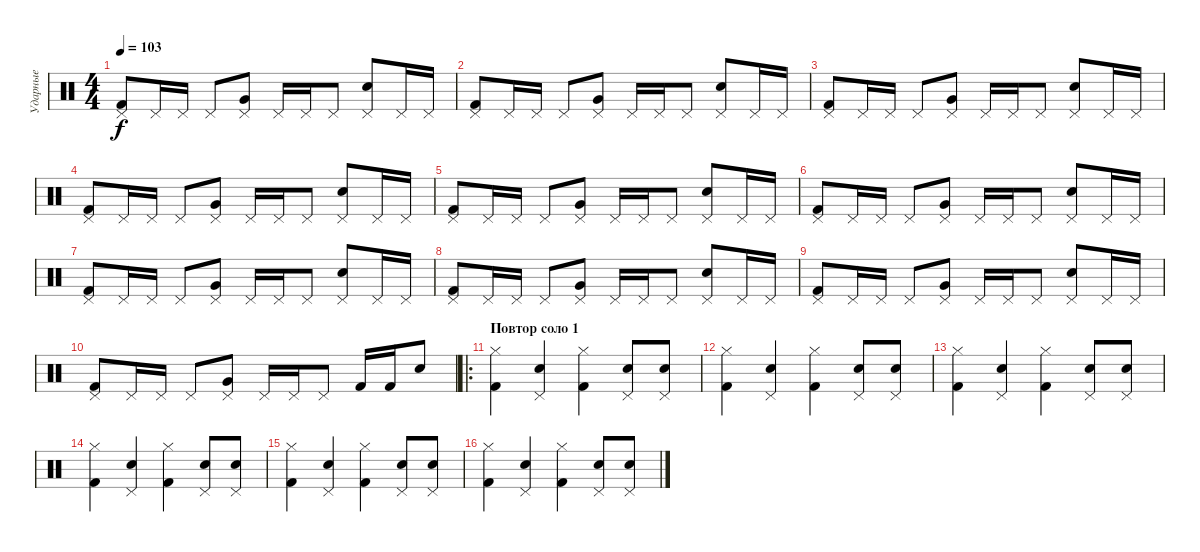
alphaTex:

\track ("Ударные" "Ударные") {instrument percussion}
\staff {score}
\articulation defaults
\ts (4 4)
\tempo 103
\clef neutral
\ks c
("Pedal Hi-Hat (hit)" "Kick (hit) 2").8{dy f} "Pedal Hi-Hat (hit)".16 "Pedal Hi-Hat (hit)".16 "Pedal Hi-Hat (hit)".8 ("Pedal Hi-Hat (hit)" "Very Low Tom (hit)").8 "Pedal Hi-Hat (hit)".16 "Pedal Hi-Hat (hit)".16 "Pedal Hi-Hat (hit)".8 ("Pedal Hi-Hat (hit)" "Snare (hit) 2").8 "Pedal Hi-Hat (hit)".16 "Pedal Hi-Hat (hit)".16 |
("Pedal Hi-Hat (hit)" "Kick (hit) 2").8 "Pedal Hi-Hat (hit)".16 "Pedal Hi-Hat (hit)".16 "Pedal Hi-Hat (hit)".8 ("Pedal Hi-Hat (hit)" "Very Low Tom (hit)").8 "Pedal Hi-Hat (hit)".16 "Pedal Hi-Hat (hit)".16 "Pedal Hi-Hat (hit)".8 ("Pedal Hi-Hat (hit)" "Snare (hit) 2").8 "Pedal Hi-Hat (hit)".16 "Pedal Hi-Hat (hit)".16 |
("Pedal Hi-Hat (hit)" "Kick (hit) 2").8 "Pedal Hi-Hat (hit)".16 "Pedal Hi-Hat (hit)".16 "Pedal Hi-Hat (hit)".8 ("Pedal Hi-Hat (hit)" "Very Low Tom (hit)").8 "Pedal Hi-Hat (hit)".16 "Pedal Hi-Hat (hit)".16 "Pedal Hi-Hat (hit)".8 ("Pedal Hi-Hat (hit)" "Snare (hit) 2").8 "Pedal Hi-Hat (hit)".16 "Pedal Hi-Hat (hit)".16 |
("Pedal Hi-Hat (hit)" "Kick (hit) 2").8 "Pedal Hi-Hat (hit)".16 "Pedal Hi-Hat (hit)".16 "Pedal Hi-Hat (hit)".8 ("Pedal Hi-Hat (hit)" "Very Low Tom (hit)").8 "Pedal Hi-Hat (hit)".16 "Pedal Hi-Hat (hit)".16 "Pedal Hi-Hat (hit)".8 ("Pedal Hi-Hat (hit)" "Snare (hit) 2").8 "Pedal Hi-Hat (hit)".16 "Pedal Hi-Hat (hit)".16 |
("Pedal Hi-Hat (hit)" "Kick (hit) 2").8 "Pedal Hi-Hat (hit)".16 "Pedal Hi-Hat (hit)".16 "Pedal Hi-Hat (hit)".8 ("Pedal Hi-Hat (hit)" "Very Low Tom (hit)").8 "Pedal Hi-Hat (hit)".16 "Pedal Hi-Hat (hit)".16 "Pedal Hi-Hat (hit)".8 ("Pedal Hi-Hat (hit)" "Snare (hit) 2").8 "Pedal Hi-Hat (hit)".16 "Pedal Hi-Hat (hit)".16 |
("Pedal Hi-Hat (hit)" "Kick (hit) 2").8 "Pedal Hi-Hat (hit)".16 "Pedal Hi-Hat (hit)".16 "Pedal Hi-Hat (hit)".8 ("Pedal Hi-Hat (hit)" "Very Low Tom (hit)").8 "Pedal Hi-Hat (hit)".16 "Pedal Hi-Hat (hit)".16 "Pedal Hi-Hat (hit)".8 ("Pedal Hi-Hat (hit)" "Snare (hit) 2").8 "Pedal Hi-Hat (hit)".16 "Pedal Hi-Hat (hit)".16 |
("Pedal Hi-Hat (hit)" "Kick (hit) 2").8 "Pedal Hi-Hat (hit)".16 "Pedal Hi-Hat (hit)".16 "Pedal Hi-Hat (hit)".8 ("Pedal Hi-Hat (hit)" "Very Low Tom (hit)").8 "Pedal Hi-Hat (hit)".16 "Pedal Hi-Hat (hit)".16 "Pedal Hi-Hat (hit)".8 ("Pedal Hi-Hat (hit)" "Snare (hit) 2").8 "Pedal Hi-Hat (hit)".16 "Pedal Hi-Hat (hit)".16 |
("Pedal Hi-Hat (hit)" "Kick (hit) 2").8 "Pedal Hi-Hat (hit)".16 "Pedal Hi-Hat (hit)".16 "Pedal Hi-Hat (hit)".8 ("Pedal Hi-Hat (hit)" "Very Low Tom (hit)").8 "Pedal Hi-Hat (hit)".16 "Pedal Hi-Hat (hit)".16 "Pedal Hi-Hat (hit)".8 ("Pedal Hi-Hat (hit)" "Snare (hit) 2").8 "Pedal Hi-Hat (hit)".16 "Pedal Hi-Hat (hit)".16 |
("Pedal Hi-Hat (hit)" "Kick (hit) 2").8 "Pedal Hi-Hat (hit)".16 "Pedal Hi-Hat (hit)".16 "Pedal Hi-Hat (hit)".8 ("Pedal Hi-Hat (hit)" "Very Low Tom (hit)").8 "Pedal Hi-Hat (hit)".16 "Pedal Hi-Hat (hit)".16 "Pedal Hi-Hat (hit)".8 ("Pedal Hi-Hat (hit)" "Snare (hit) 2").8 "Pedal Hi-Hat (hit)".16 "Pedal Hi-Hat (hit)".16 |
("Pedal Hi-Hat (hit)" "Kick (hit) 2").8 "Pedal Hi-Hat (hit)".16 "Pedal Hi-Hat (hit)".16 "Pedal Hi-Hat (hit)".8 ("Pedal Hi-Hat (hit)" "Very Low Tom (hit)").8 "Pedal Hi-Hat (hit)".16 "Pedal Hi-Hat (hit)".16 "Pedal Hi-Hat (hit)".8 "Kick (hit) 2".16 "Kick (hit) 2".16 "Snare (hit) 2".8 |
\ro
\section ("" "Повтор соло 1")
("Hi-Hat (closed)" "Kick (hit) 2").4 ("Pedal Hi-Hat (hit)" "Snare (hit) 2").4 ("Hi-Hat (closed)" "Kick (hit) 2").4 ("Pedal Hi-Hat (hit)" "Snare (hit) 2").8 ("Pedal Hi-Hat (hit)" "Snare (hit) 2").8 |
("Hi-Hat (closed)" "Kick (hit) 2").4 ("Pedal Hi-Hat (hit)" "Snare (hit) 2").4 ("Hi-Hat (closed)" "Kick (hit) 2").4 ("Pedal Hi-Hat (hit)" "Snare (hit) 2").8 ("Pedal Hi-Hat (hit)" "Snare (hit) 2").8 |
("Hi-Hat (closed)" "Kick (hit) 2").4 ("Pedal Hi-Hat (hit)" "Snare (hit) 2").4 ("Hi-Hat (closed)" "Kick (hit) 2").4 ("Pedal Hi-Hat (hit)" "Snare (hit) 2").8 ("Pedal Hi-Hat (hit)" "Snare (hit) 2").8 |
("Hi-Hat (closed)" "Kick (hit) 2").4 ("Pedal Hi-Hat (hit)" "Snare (hit) 2").4 ("Hi-Hat (closed)" "Kick (hit) 2").4 ("Pedal Hi-Hat (hit)" "Snare (hit) 2").8 ("Pedal Hi-Hat (hit)" "Snare (hit) 2").8 |
("Hi-Hat (closed)" "Kick (hit) 2").4 ("Pedal Hi-Hat (hit)" "Snare (hit) 2").4 ("Hi-Hat (closed)" "Kick (hit) 2").4 ("Pedal Hi-Hat (hit)" "Snare (hit) 2").8 ("Pedal Hi-Hat (hit)" "Snare (hit) 2").8 |
("Hi-Hat (closed)" "Kick (hit) 2").4 ("Pedal Hi-Hat (hit)" "Snare (hit) 2").4 ("Hi-Hat (closed)" "Kick (hit) 2").4 ("Pedal Hi-Hat (hit)" "Snare (hit) 2").8 ("Pedal Hi-Hat (hit)" "Snare (hit) 2").8
